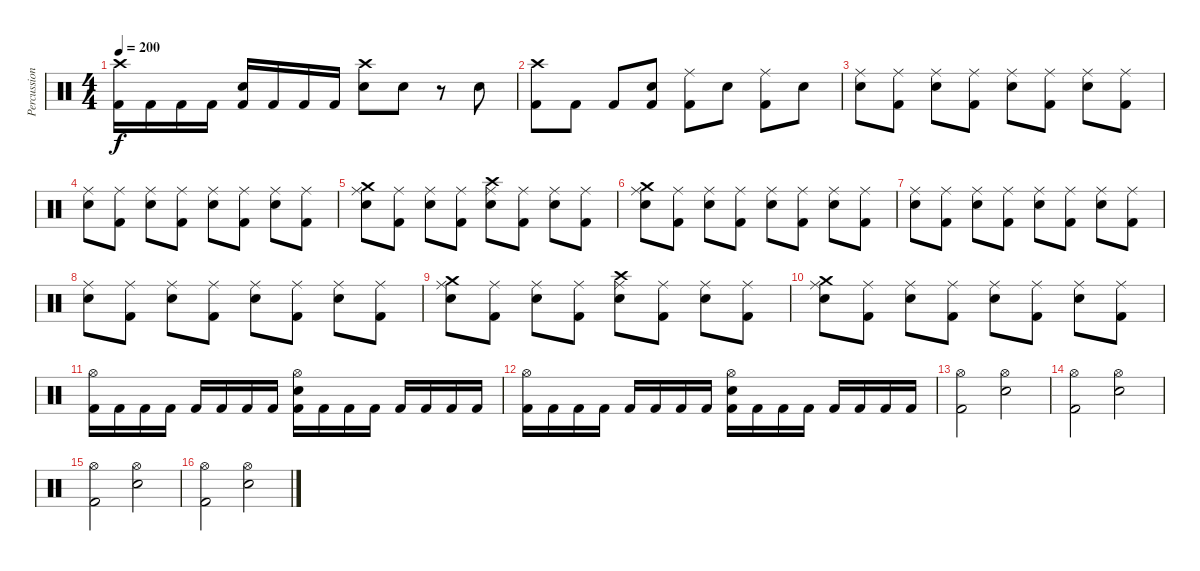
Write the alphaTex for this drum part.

\track ("Percussion" "Percussion") {instrument percussion}
\staff {score}
\articulation defaults
\ts (4 4)
\tempo 200
\clef neutral
\ks c
("Crash high (hit)" "Kick (hit) 2").16{dy f} "Kick (hit) 2".16 "Kick (hit) 2".16 "Kick (hit) 2".16 ("Snare (hit) 2" "Kick (hit) 2").16 "Kick (hit) 2".16 "Kick (hit) 2".16 "Kick (hit) 2".16 ("Snare (hit) 2" "Crash high (hit)").8 "Snare (hit) 2".8 r.8 "Snare (hit) 2".8 |
("Kick (hit) 2" "Crash high (hit)").8 "Kick (hit) 2".8 "Kick (hit) 2".8 ("Kick (hit) 2" "Snare (hit) 2").8 ("Kick (hit) 2" "Ride (middle)").8 "Snare (hit) 2".8 ("Kick (hit) 2" "Ride (middle)").8 "Snare (hit) 2".8 |
("Ride (middle)" "Snare (hit) 2").8 ("Kick (hit) 2" "Ride (middle)").8 ("Ride (middle)" "Snare (hit) 2").8 ("Kick (hit) 2" "Ride (middle)").8 ("Ride (middle)" "Snare (hit) 2").8 ("Kick (hit) 2" "Ride (middle)").8 ("Ride (middle)" "Snare (hit) 2").8 ("Kick (hit) 2" "Ride (middle)").8 |
("Ride (middle)" "Snare (hit) 2").8 ("Kick (hit) 2" "Ride (middle)").8 ("Ride (middle)" "Snare (hit) 2").8 ("Kick (hit) 2" "Ride (middle)").8 ("Ride (middle)" "Snare (hit) 2").8 ("Kick (hit) 2" "Ride (middle)").8 ("Ride (middle)" "Snare (hit) 2").8 ("Kick (hit) 2" "Ride (middle)").8 |
("Ride (middle)" "Snare (hit) 2" "Crash medium (hit)").8 ("Kick (hit) 2" "Ride (middle)").8 ("Ride (middle)" "Snare (hit) 2").8 ("Kick (hit) 2" "Ride (middle)").8 ("Ride (middle)" "Snare (hit) 2" "Crash high (hit)").8 ("Kick (hit) 2" "Ride (middle)").8 ("Ride (middle)" "Snare (hit) 2").8 ("Kick (hit) 2" "Ride (middle)").8 |
("Ride (middle)" "Snare (hit) 2" "Crash medium (hit)").8 ("Kick (hit) 2" "Ride (middle)").8 ("Ride (middle)" "Snare (hit) 2").8 ("Kick (hit) 2" "Ride (middle)").8 ("Ride (middle)" "Snare (hit) 2").8 ("Kick (hit) 2" "Ride (middle)").8 ("Ride (middle)" "Snare (hit) 2").8 ("Kick (hit) 2" "Ride (middle)").8 |
("Ride (middle)" "Snare (hit) 2").8 ("Kick (hit) 2" "Ride (middle)").8 ("Ride (middle)" "Snare (hit) 2").8 ("Kick (hit) 2" "Ride (middle)").8 ("Ride (middle)" "Snare (hit) 2").8 ("Kick (hit) 2" "Ride (middle)").8 ("Ride (middle)" "Snare (hit) 2").8 ("Kick (hit) 2" "Ride (middle)").8 |
("Ride (middle)" "Snare (hit) 2").8 ("Kick (hit) 2" "Ride (middle)").8 ("Ride (middle)" "Snare (hit) 2").8 ("Kick (hit) 2" "Ride (middle)").8 ("Ride (middle)" "Snare (hit) 2").8 ("Kick (hit) 2" "Ride (middle)").8 ("Ride (middle)" "Snare (hit) 2").8 ("Kick (hit) 2" "Ride (middle)").8 |
("Ride (middle)" "Snare (hit) 2" "Crash medium (hit)").8 ("Kick (hit) 2" "Ride (middle)").8 ("Ride (middle)" "Snare (hit) 2").8 ("Kick (hit) 2" "Ride (middle)").8 ("Ride (middle)" "Snare (hit) 2" "Crash high (hit)").8 ("Kick (hit) 2" "Ride (middle)").8 ("Ride (middle)" "Snare (hit) 2").8 ("Kick (hit) 2" "Ride (middle)").8 |
("Ride (middle)" "Snare (hit) 2" "Crash medium (hit)").8 ("Kick (hit) 2" "Ride (middle)").8 ("Ride (middle)" "Snare (hit) 2").8 ("Kick (hit) 2" "Ride (middle)").8 ("Ride (middle)" "Snare (hit) 2").8 ("Kick (hit) 2" "Ride (middle)").8 ("Ride (middle)" "Snare (hit) 2").8 ("Kick (hit) 2" "Ride (middle)").8 |
("Kick (hit) 2" "Hi-Hat (open)").16 "Kick (hit) 2".16 "Kick (hit) 2".16 "Kick (hit) 2".16 "Kick (hit) 2".16 "Kick (hit) 2".16 "Kick (hit) 2".16 "Kick (hit) 2".16 ("Kick (hit) 2" "Hi-Hat (open)" "Snare (hit) 2").16 "Kick (hit) 2".16 "Kick (hit) 2".16 "Kick (hit) 2".16 "Kick (hit) 2".16 "Kick (hit) 2".16 "Kick (hit) 2".16 "Kick (hit) 2".16 |
("Kick (hit) 2" "Hi-Hat (open)").16 "Kick (hit) 2".16 "Kick (hit) 2".16 "Kick (hit) 2".16 "Kick (hit) 2".16 "Kick (hit) 2".16 "Kick (hit) 2".16 "Kick (hit) 2".16 ("Kick (hit) 2" "Hi-Hat (open)" "Snare (hit) 2").16 "Kick (hit) 2".16 "Kick (hit) 2".16 "Kick (hit) 2".16 "Kick (hit) 2".16 "Kick (hit) 2".16 "Kick (hit) 2".16 "Kick (hit) 2".16 |
("Hi-Hat (open)" "Kick (hit) 2").2 ("Snare (hit) 2" "Hi-Hat (open)").2 |
("Hi-Hat (open)" "Kick (hit) 2").2 ("Snare (hit) 2" "Hi-Hat (open)").2 |
("Hi-Hat (open)" "Kick (hit) 2").2 ("Snare (hit) 2" "Hi-Hat (open)").2 |
("Hi-Hat (open)" "Kick (hit) 2").2 ("Snare (hit) 2" "Hi-Hat (open)").2
